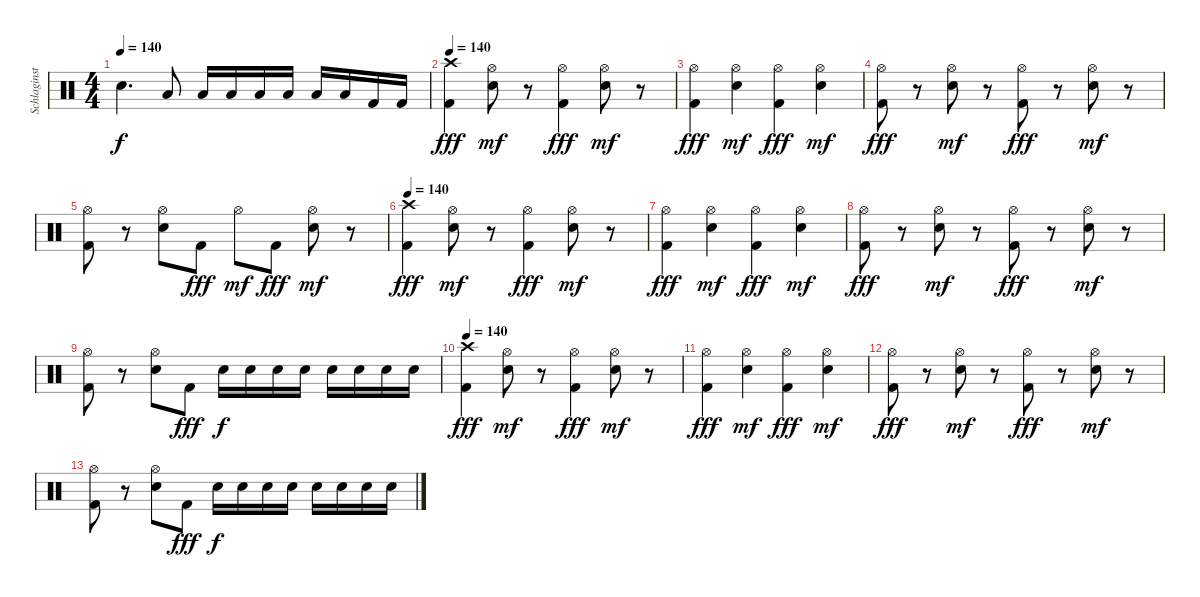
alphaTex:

\track ("Schlaginstrumente - Auswahl" "Schlaginst") {instrument percussion}
\staff {score}
\articulation defaults
\ts (4 4)
\tempo 140
\clef neutral
\ks c "Electric Snare (hit)".4{d dy f} "Low Tom (hit)".8 "Low Tom (hit)".16 "Low Tom (hit)".16 "Low Tom (hit)".16 "Low Floor Tom (hit)".16 "Low Floor Tom (hit)".16 "Low Floor Tom (hit)".16 "Kick (hit) 2".16 "Kick (hit) 2".16
|
\tempo 140
("Crash high (hit)" "Kick (hit) 2").4{dy fff} ("Hi-Hat (open)" "Electric Snare (hit)").8{dy mf} r.8 ("Hi-Hat (open)" "Kick (hit) 2").4{dy fff} ("Hi-Hat (open)" "Electric Snare (hit)").8{dy mf} r.8 |
("Hi-Hat (open)" "Kick (hit) 2").4{dy fff} ("Hi-Hat (open)" "Electric Snare (hit)").4{dy mf} ("Hi-Hat (open)" "Kick (hit) 2").4{dy fff} ("Hi-Hat (open)" "Electric Snare (hit)").4{dy mf} |
("Hi-Hat (open)" "Kick (hit) 2").8{dy fff} r.8 ("Hi-Hat (open)" "Electric Snare (hit)").8{dy mf} r.8 ("Hi-Hat (open)" "Kick (hit) 2").8{dy fff} r.8 ("Hi-Hat (open)" "Electric Snare (hit)").8{dy mf} r.8 |
("Hi-Hat (open)" "Kick (hit) 2").8 r.8 ("Hi-Hat (open)" "Electric Snare (hit)").8 "Kick (hit) 2".8{dy fff} "Hi-Hat (open)".8{dy mf} "Kick (hit) 2".8{dy fff} ("Hi-Hat (open)" "Electric Snare (hit)").8{dy mf} r.8 |
\tempo 140
("Crash high (hit)" "Kick (hit) 2").4{dy fff} ("Hi-Hat (open)" "Electric Snare (hit)").8{dy mf} r.8 ("Hi-Hat (open)" "Kick (hit) 2").4{dy fff} ("Hi-Hat (open)" "Electric Snare (hit)").8{dy mf} r.8 |
("Hi-Hat (open)" "Kick (hit) 2").4{dy fff} ("Hi-Hat (open)" "Electric Snare (hit)").4{dy mf} ("Hi-Hat (open)" "Kick (hit) 2").4{dy fff} ("Hi-Hat (open)" "Electric Snare (hit)").4{dy mf} |
("Hi-Hat (open)" "Kick (hit) 2").8{dy fff} r.8 ("Hi-Hat (open)" "Electric Snare (hit)").8{dy mf} r.8 ("Hi-Hat (open)" "Kick (hit) 2").8{dy fff} r.8 ("Hi-Hat (open)" "Electric Snare (hit)").8{dy mf} r.8 |
("Hi-Hat (open)" "Kick (hit) 2").8 r.8 ("Hi-Hat (open)" "Electric Snare (hit)").8 "Kick (hit) 2".8{dy fff} "Electric Snare (hit)".16{dy f} "Electric Snare (hit)".16 "Electric Snare (hit)".16 "Electric Snare (hit)".16 "Electric Snare (hit)".16 "Electric Snare (hit)".16 "Electric Snare (hit)".16 "Electric Snare (hit)".16 |
\tempo 140
("Crash high (hit)" "Kick (hit) 2").4{dy fff} ("Hi-Hat (open)" "Electric Snare (hit)").8{dy mf} r.8 ("Hi-Hat (open)" "Kick (hit) 2").4{dy fff} ("Hi-Hat (open)" "Electric Snare (hit)").8{dy mf} r.8 |
("Hi-Hat (open)" "Kick (hit) 2").4{dy fff} ("Hi-Hat (open)" "Electric Snare (hit)").4{dy mf} ("Hi-Hat (open)" "Kick (hit) 2").4{dy fff} ("Hi-Hat (open)" "Electric Snare (hit)").4{dy mf} |
("Hi-Hat (open)" "Kick (hit) 2").8{dy fff} r.8 ("Hi-Hat (open)" "Electric Snare (hit)").8{dy mf} r.8 ("Hi-Hat (open)" "Kick (hit) 2").8{dy fff} r.8 ("Hi-Hat (open)" "Electric Snare (hit)").8{dy mf} r.8 |
("Hi-Hat (open)" "Kick (hit) 2").8 r.8 ("Hi-Hat (open)" "Electric Snare (hit)").8 "Kick (hit) 2".8{dy fff} "Electric Snare (hit)".16{dy f} "Electric Snare (hit)".16 "Electric Snare (hit)".16 "Electric Snare (hit)".16 "Electric Snare (hit)".16 "Electric Snare (hit)".16 "Electric Snare (hit)".16 "Electric Snare (hit)".16
